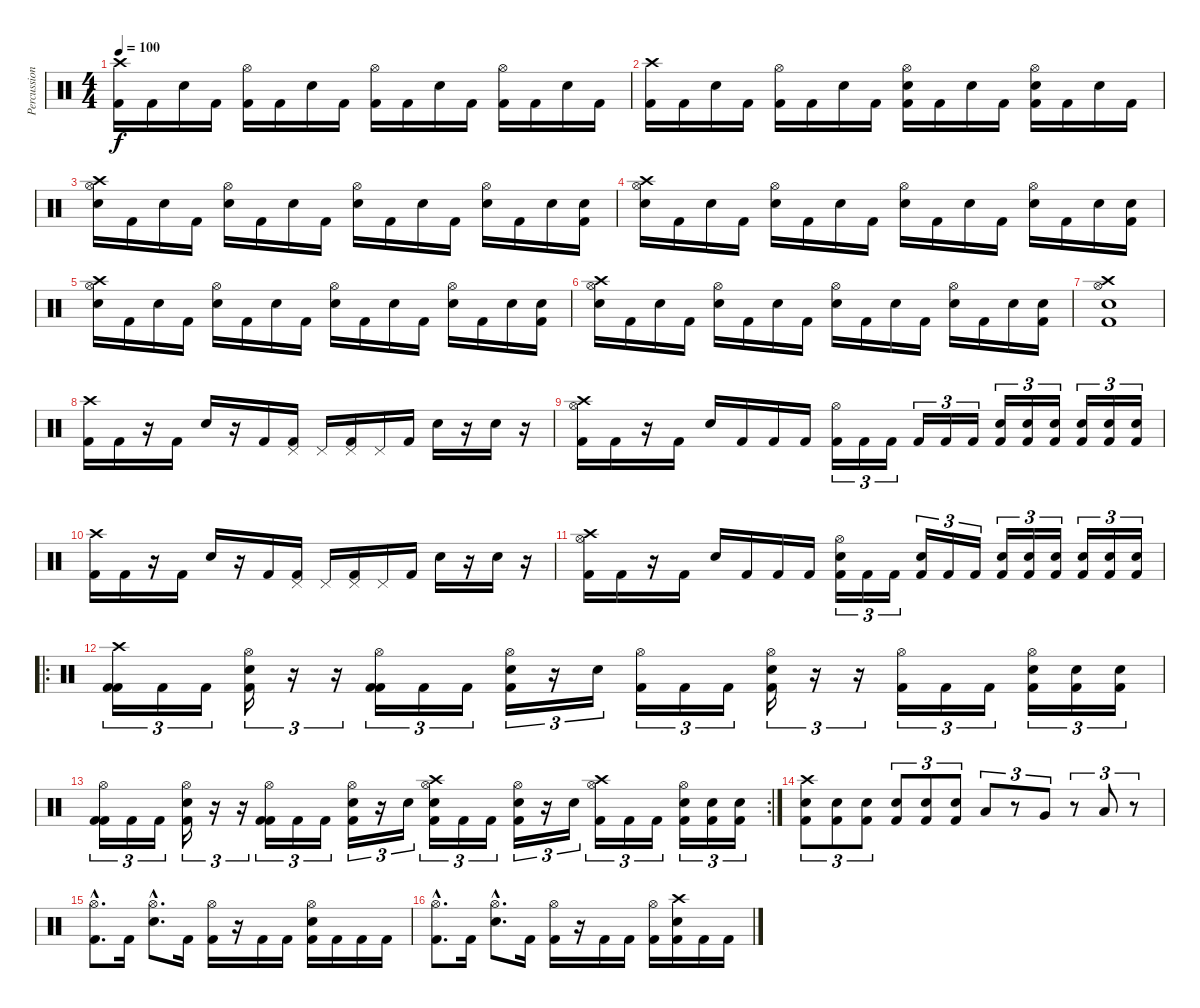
\track ("Percussion" "Percussion") {instrument percussion}
\staff {score}
\articulation defaults
\ts (4 4)
\tempo 100
\clef neutral
\ks c
("Crash high (hit)" "Kick (hit) 2").16{dy f} "Kick (hit) 2".16 "Electric Snare (hit)".16 "Kick (hit) 2".16 ("Hi-Hat (open)" "Kick (hit) 2").16 "Kick (hit) 2".16 "Electric Snare (hit)".16 "Kick (hit) 2".16 ("Hi-Hat (open)" "Kick (hit) 2").16 "Kick (hit) 2".16 "Electric Snare (hit)".16 "Kick (hit) 2".16 ("Hi-Hat (open)" "Kick (hit) 2").16 "Kick (hit) 2".16 "Electric Snare (hit)".16 "Kick (hit) 2".16 |
("Crash high (hit)" "Kick (hit) 2").16 "Kick (hit) 2".16 "Electric Snare (hit)".16 "Kick (hit) 2".16 ("Hi-Hat (open)" "Kick (hit) 2").16 "Kick (hit) 2".16 "Electric Snare (hit)".16 "Kick (hit) 2".16 ("Hi-Hat (open)" "Electric Snare (hit)" "Kick (hit) 2").16 "Kick (hit) 2".16 "Electric Snare (hit)".16 "Kick (hit) 2".16 ("Hi-Hat (open)" "Electric Snare (hit)" "Kick (hit) 2").16 "Kick (hit) 2".16 "Electric Snare (hit)".16 "Kick (hit) 2".16 |
("Crash high (hit)" "Hi-Hat (open)" "Electric Snare (hit)").16 "Kick (hit) 2".16 "Electric Snare (hit)".16 "Kick (hit) 2".16 ("Hi-Hat (open)" "Electric Snare (hit)").16 "Kick (hit) 2".16 "Electric Snare (hit)".16 "Kick (hit) 2".16 ("Hi-Hat (open)" "Electric Snare (hit)").16 "Kick (hit) 2".16 "Electric Snare (hit)".16 "Kick (hit) 2".16 ("Hi-Hat (open)" "Electric Snare (hit)").16 "Kick (hit) 2".16 "Electric Snare (hit)".16 ("Electric Snare (hit)" "Kick (hit) 2").16 |
("Crash high (hit)" "Hi-Hat (open)" "Electric Snare (hit)").16 "Kick (hit) 2".16 "Electric Snare (hit)".16 "Kick (hit) 2".16 ("Hi-Hat (open)" "Electric Snare (hit)").16 "Kick (hit) 2".16 "Electric Snare (hit)".16 "Kick (hit) 2".16 ("Hi-Hat (open)" "Electric Snare (hit)").16 "Kick (hit) 2".16 "Electric Snare (hit)".16 "Kick (hit) 2".16 ("Hi-Hat (open)" "Electric Snare (hit)").16 "Kick (hit) 2".16 "Electric Snare (hit)".16 ("Electric Snare (hit)" "Kick (hit) 2").16 |
("Crash high (hit)" "Hi-Hat (open)" "Electric Snare (hit)").16 "Kick (hit) 2".16 "Electric Snare (hit)".16 "Kick (hit) 2".16 ("Hi-Hat (open)" "Electric Snare (hit)").16 "Kick (hit) 2".16 "Electric Snare (hit)".16 "Kick (hit) 2".16 ("Hi-Hat (open)" "Electric Snare (hit)").16 "Kick (hit) 2".16 "Electric Snare (hit)".16 "Kick (hit) 2".16 ("Hi-Hat (open)" "Electric Snare (hit)").16 "Kick (hit) 2".16 "Electric Snare (hit)".16 ("Electric Snare (hit)" "Kick (hit) 2").16 |
("Crash high (hit)" "Hi-Hat (open)" "Electric Snare (hit)").16 "Kick (hit) 2".16 "Electric Snare (hit)".16 "Kick (hit) 2".16 ("Hi-Hat (open)" "Electric Snare (hit)").16 "Kick (hit) 2".16 "Electric Snare (hit)".16 "Kick (hit) 2".16 ("Hi-Hat (open)" "Electric Snare (hit)").16 "Kick (hit) 2".16 "Electric Snare (hit)".16 "Kick (hit) 2".16 ("Hi-Hat (open)" "Electric Snare (hit)").16 "Kick (hit) 2".16 "Electric Snare (hit)".16 ("Electric Snare (hit)" "Kick (hit) 2").16 |
("Crash high (hit)" "Hi-Hat (open)" "Electric Snare (hit)" "Kick (hit) 2").1 |
("Crash high (hit)" "Kick (hit) 2").16 "Kick (hit) 2".16 r.16 "Kick (hit) 2".16 "Electric Snare (hit)".16 r.16 "Kick (hit) 2".16 ("Pedal Hi-Hat (hit)" "Kick (hit) 2").16 "Pedal Hi-Hat (hit)".16 ("Pedal Hi-Hat (hit)" "Kick (hit) 2").16 "Pedal Hi-Hat (hit)".16 "Kick (hit) 2".16 "Electric Snare (hit)".16 r.16 "Electric Snare (hit)".16 r.16 |
("Crash high (hit)" "Hi-Hat (open)" "Kick (hit) 2").16 "Kick (hit) 2".16 r.16 "Kick (hit) 2".16 "Electric Snare (hit)".16 "Kick (hit) 2".16 "Kick (hit) 2".16 "Kick (hit) 2".16 ("Hi-Hat (open)" "Kick (hit) 2").16{tu (3 2)} "Kick (hit) 2".16{tu (3 2)} "Kick (hit) 2".16{tu (3 2)} "Kick (hit) 2".16{tu (3 2)} "Kick (hit) 2".16{tu (3 2)} "Kick (hit) 2".16{tu (3 2)} ("Electric Snare (hit)" "Kick (hit) 2").16{tu (3 2)} ("Electric Snare (hit)" "Kick (hit) 2").16{tu (3 2)} ("Electric Snare (hit)" "Kick (hit) 2").16{tu (3 2)} ("Electric Snare (hit)" "Kick (hit) 2").16{tu (3 2)} ("Electric Snare (hit)" "Kick (hit) 2").16{tu (3 2)} ("Electric Snare (hit)" "Kick (hit) 2").16{tu (3 2)} |
("Crash high (hit)" "Kick (hit) 2").16 "Kick (hit) 2".16 r.16 "Kick (hit) 2".16 "Electric Snare (hit)".16 r.16 "Kick (hit) 2".16 ("Pedal Hi-Hat (hit)" "Kick (hit) 2").16 "Pedal Hi-Hat (hit)".16 ("Pedal Hi-Hat (hit)" "Kick (hit) 2").16 "Pedal Hi-Hat (hit)".16 "Kick (hit) 2".16 "Electric Snare (hit)".16 r.16 "Electric Snare (hit)".16 r.16 |
("Crash high (hit)" "Hi-Hat (open)" "Kick (hit) 2").16 "Kick (hit) 2".16 r.16 "Kick (hit) 2".16 "Electric Snare (hit)".16 "Kick (hit) 2".16 "Kick (hit) 2".16 "Kick (hit) 2".16 ("Hi-Hat (open)" "Electric Snare (hit)" "Kick (hit) 2").16{tu (3 2)} "Kick (hit) 2".16{tu (3 2)} "Kick (hit) 2".16{tu (3 2)} ("Electric Snare (hit)" "Kick (hit) 2").16{tu (3 2)} "Kick (hit) 2".16{tu (3 2)} "Kick (hit) 2".16{tu (3 2)} ("Electric Snare (hit)" "Kick (hit) 2").16{tu (3 2)} ("Electric Snare (hit)" "Kick (hit) 2").16{tu (3 2)} ("Electric Snare (hit)" "Kick (hit) 2").16{tu (3 2)} ("Electric Snare (hit)" "Kick (hit) 2").16{tu (3 2)} ("Electric Snare (hit)" "Kick (hit) 2").16{tu (3 2)} ("Electric Snare (hit)" "Kick (hit) 2").16{tu (3 2)} |
\ro
("Crash high (hit)" "Kick (hit) 2" "Kick (hit) 2").16{tu (3 2)} "Kick (hit) 2".16{tu (3 2)} "Kick (hit) 2".16{tu (3 2)} ("Hi-Hat (open)" "Electric Snare (hit)" "Kick (hit) 2").16{tu (3 2)} r.16{tu (3 2)} r.16{tu (3 2)} ("Hi-Hat (open)" "Kick (hit) 2" "Kick (hit) 2").16{tu (3 2)} "Kick (hit) 2".16{tu (3 2)} "Kick (hit) 2".16{tu (3 2)} ("Hi-Hat (open)" "Electric Snare (hit)" "Kick (hit) 2").16{tu (3 2)} r.16{tu (3 2)} "Electric Snare (hit)".16{tu (3 2)} ("Hi-Hat (open)" "Kick (hit) 2").16{tu (3 2)} "Kick (hit) 2".16{tu (3 2)} "Kick (hit) 2".16{tu (3 2)} ("Hi-Hat (open)" "Electric Snare (hit)" "Kick (hit) 2").16{tu (3 2)} r.16{tu (3 2)} r.16{tu (3 2)} ("Hi-Hat (open)" "Kick (hit) 2").16{tu (3 2)} "Kick (hit) 2".16{tu (3 2)} "Kick (hit) 2".16{tu (3 2)} ("Hi-Hat (open)" "Electric Snare (hit)" "Kick (hit) 2").16{tu (3 2)} ("Electric Snare (hit)" "Kick (hit) 2").16{tu (3 2)} ("Electric Snare (hit)" "Kick (hit) 2").16{tu (3 2)} |
\rc 2
("Hi-Hat (open)" "Kick (hit) 2" "Kick (hit) 2").16{tu (3 2)} "Kick (hit) 2".16{tu (3 2)} "Kick (hit) 2".16{tu (3 2)} ("Hi-Hat (open)" "Electric Snare (hit)" "Kick (hit) 2").16{tu (3 2)} r.16{tu (3 2)} r.16{tu (3 2)} ("Hi-Hat (open)" "Kick (hit) 2" "Kick (hit) 2").16{tu (3 2)} "Kick (hit) 2".16{tu (3 2)} "Kick (hit) 2".16{tu (3 2)} ("Hi-Hat (open)" "Electric Snare (hit)" "Kick (hit) 2").16{tu (3 2)} r.16{tu (3 2)} "Electric Snare (hit)".16{tu (3 2)} ("Crash high (hit)" "Hi-Hat (open)" "Electric Snare (hit)" "Kick (hit) 2").16{tu (3 2)} "Kick (hit) 2".16{tu (3 2)} "Kick (hit) 2".16{tu (3 2)} ("Hi-Hat (open)" "Electric Snare (hit)" "Kick (hit) 2").16{tu (3 2)} r.16{tu (3 2)} "Electric Snare (hit)".16{tu (3 2)} ("Crash high (hit)" "Hi-Hat (open)" "Kick (hit) 2").16{tu (3 2)} "Kick (hit) 2".16{tu (3 2)} "Kick (hit) 2".16{tu (3 2)} ("Hi-Hat (open)" "Electric Snare (hit)" "Kick (hit) 2").16{tu (3 2)} ("Electric Snare (hit)" "Kick (hit) 2").16{tu (3 2)} ("Electric Snare (hit)" "Kick (hit) 2").16{tu (3 2)} |
("Crash high (hit)" "Electric Snare (hit)" "Kick (hit) 2").8{tu (3 2)} ("Electric Snare (hit)" "Kick (hit) 2").8{tu (3 2)} ("Electric Snare (hit)" "Kick (hit) 2").8{tu (3 2)} ("Electric Snare (hit)" "Kick (hit) 2").8{tu (3 2)} ("Electric Snare (hit)" "Kick (hit) 2").8{tu (3 2)} ("Electric Snare (hit)" "Kick (hit) 2").8{tu (3 2)} "Low Tom (hit)".8{tu (3 2)} r.8{tu (3 2)} "Very Low Tom (hit)".8{tu (3 2)} r.8{tu (3 2)} "Low Floor Tom (hit)".8{tu (3 2)} r.8{tu (3 2)} |
("Hi-Hat (open)"{hac} "Kick (hit) 2"{hac}).8{d} "Kick (hit) 2".16 ("Hi-Hat (open)"{hac} "Electric Snare (hit)"{hac}).8{d} "Kick (hit) 2".16 ("Hi-Hat (open)" "Kick (hit) 2").16 r.16 "Kick (hit) 2".16 "Kick (hit) 2".16 ("Hi-Hat (open)" "Electric Snare (hit)" "Kick (hit) 2").16 "Kick (hit) 2".16 "Kick (hit) 2".16 "Kick (hit) 2".16 |
("Hi-Hat (open)"{hac} "Kick (hit) 2"{hac}).8{d} "Kick (hit) 2".16 ("Hi-Hat (open)"{hac} "Electric Snare (hit)"{hac}).8{d} "Kick (hit) 2".16 ("Hi-Hat (open)" "Kick (hit) 2").16 r.16 "Kick (hit) 2".16 "Kick (hit) 2".16 ("Hi-Hat (open)" "Kick (hit) 2").16 ("Crash high (hit)" "Electric Snare (hit)" "Kick (hit) 2").16 "Kick (hit) 2".16 "Kick (hit) 2".16
